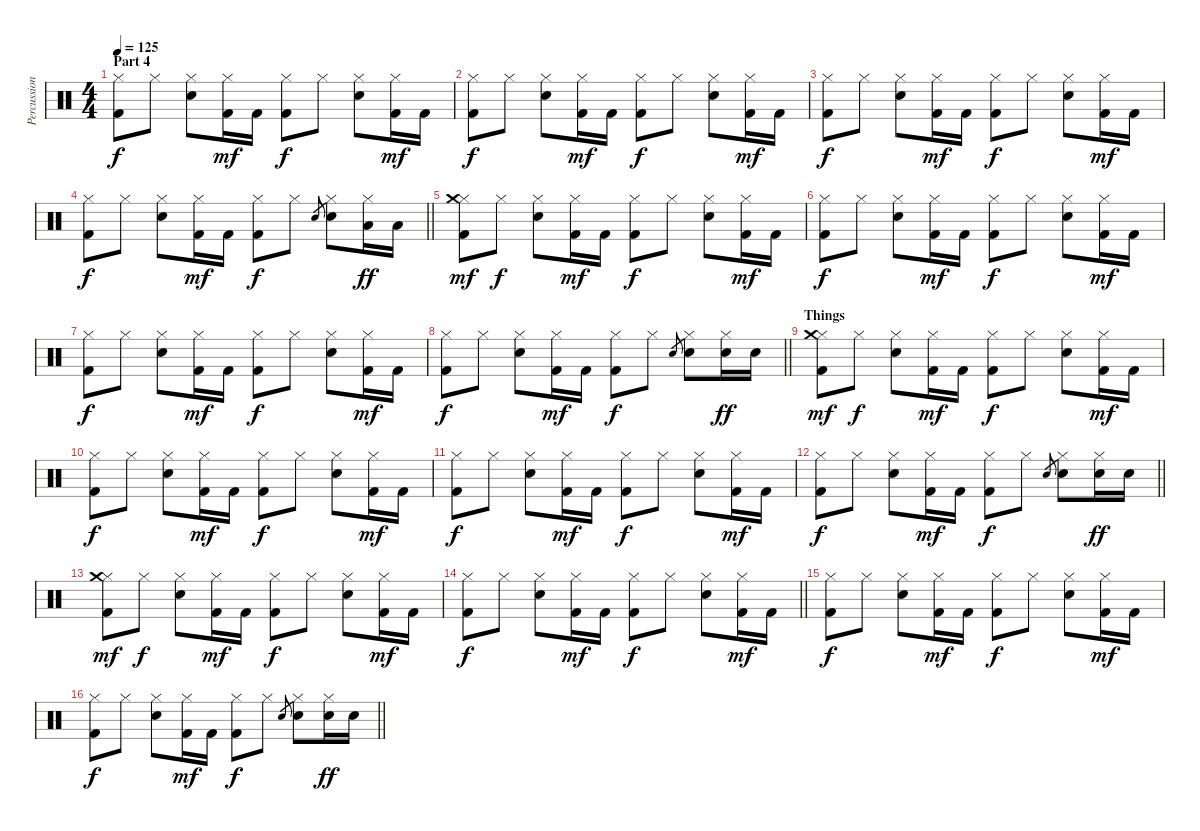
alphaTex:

\track ("Percussion" "Percussion") {instrument percussion}
\staff {score}
\articulation defaults
\ts (4 4)
\section ("" "Part 4")
\tempo 125
\clef neutral
\ks c
("Hi-Hat (closed)" "Kick (hit) 2").8{dy f} "Hi-Hat (closed)".8 ("Hi-Hat (closed)" "Electric Snare (hit)").8 ("Hi-Hat (closed)" "Kick (hit) 2").16{dy mf} "Kick (hit) 2".16 ("Hi-Hat (closed)" "Kick (hit) 2").8{dy f} "Hi-Hat (closed)".8 ("Hi-Hat (closed)" "Electric Snare (hit)").8 ("Hi-Hat (closed)" "Kick (hit) 2").16{dy mf} "Kick (hit) 2".16 |
("Hi-Hat (closed)" "Kick (hit) 2").8{dy f} "Hi-Hat (closed)".8 ("Hi-Hat (closed)" "Electric Snare (hit)").8 ("Hi-Hat (closed)" "Kick (hit) 2").16{dy mf} "Kick (hit) 2".16 ("Hi-Hat (closed)" "Kick (hit) 2").8{dy f} "Hi-Hat (closed)".8 ("Hi-Hat (closed)" "Electric Snare (hit)").8 ("Hi-Hat (closed)" "Kick (hit) 2").16{dy mf} "Kick (hit) 2".16 |
("Hi-Hat (closed)" "Kick (hit) 2").8{dy f} "Hi-Hat (closed)".8 ("Hi-Hat (closed)" "Electric Snare (hit)").8 ("Hi-Hat (closed)" "Kick (hit) 2").16{dy mf} "Kick (hit) 2".16 ("Hi-Hat (closed)" "Kick (hit) 2").8{dy f} "Hi-Hat (closed)".8 ("Hi-Hat (closed)" "Electric Snare (hit)").8 ("Hi-Hat (closed)" "Kick (hit) 2").16{dy mf} "Kick (hit) 2".16 |
\barLineRight lightlight
("Hi-Hat (closed)" "Kick (hit) 2").8{dy f} "Hi-Hat (closed)".8 ("Hi-Hat (closed)" "Electric Snare (hit)").8 ("Hi-Hat (closed)" "Kick (hit) 2").16{dy mf} "Kick (hit) 2".16 ("Hi-Hat (closed)" "Kick (hit) 2").8{dy f} "Hi-Hat (closed)".8 "Electric Snare (hit)".8{gr} ("Hi-Hat (closed)" "Electric Snare (hit)").8 ("Hi-Hat (closed)" "Low Tom (hit)").16{dy ff} "Low Tom (hit)".16 |
("Hi-Hat (closed)" "Kick (hit) 2" "Crash medium (hit)").8{dy mf} "Hi-Hat (closed)".8{dy f} ("Hi-Hat (closed)" "Electric Snare (hit)").8 ("Hi-Hat (closed)" "Kick (hit) 2").16{dy mf} "Kick (hit) 2".16 ("Hi-Hat (closed)" "Kick (hit) 2").8{dy f} "Hi-Hat (closed)".8 ("Hi-Hat (closed)" "Electric Snare (hit)").8 ("Hi-Hat (closed)" "Kick (hit) 2").16{dy mf} "Kick (hit) 2".16 |
("Hi-Hat (closed)" "Kick (hit) 2").8{dy f} "Hi-Hat (closed)".8 ("Hi-Hat (closed)" "Electric Snare (hit)").8 ("Hi-Hat (closed)" "Kick (hit) 2").16{dy mf} "Kick (hit) 2".16 ("Hi-Hat (closed)" "Kick (hit) 2").8{dy f} "Hi-Hat (closed)".8 ("Hi-Hat (closed)" "Electric Snare (hit)").8 ("Hi-Hat (closed)" "Kick (hit) 2").16{dy mf} "Kick (hit) 2".16 |
("Hi-Hat (closed)" "Kick (hit) 2").8{dy f} "Hi-Hat (closed)".8 ("Hi-Hat (closed)" "Electric Snare (hit)").8 ("Hi-Hat (closed)" "Kick (hit) 2").16{dy mf} "Kick (hit) 2".16 ("Hi-Hat (closed)" "Kick (hit) 2").8{dy f} "Hi-Hat (closed)".8 ("Hi-Hat (closed)" "Electric Snare (hit)").8 ("Hi-Hat (closed)" "Kick (hit) 2").16{dy mf} "Kick (hit) 2".16 |
\barLineRight lightlight
("Hi-Hat (closed)" "Kick (hit) 2").8{dy f} "Hi-Hat (closed)".8 ("Hi-Hat (closed)" "Electric Snare (hit)").8 ("Hi-Hat (closed)" "Kick (hit) 2").16{dy mf} "Kick (hit) 2".16 ("Hi-Hat (closed)" "Kick (hit) 2").8{dy f} "Hi-Hat (closed)".8 "Electric Snare (hit)".8{gr} ("Hi-Hat (closed)" "Electric Snare (hit)").8 ("Hi-Hat (closed)" "Snare (hit) 2").16{dy ff} "Snare (hit) 2".16 |
\section ("" "Things")
("Hi-Hat (closed)" "Kick (hit) 2" "Crash medium (hit)").8{dy mf} "Hi-Hat (closed)".8{dy f} ("Hi-Hat (closed)" "Electric Snare (hit)").8 ("Hi-Hat (closed)" "Kick (hit) 2").16{dy mf} "Kick (hit) 2".16 ("Hi-Hat (closed)" "Kick (hit) 2").8{dy f} "Hi-Hat (closed)".8 ("Hi-Hat (closed)" "Electric Snare (hit)").8 ("Hi-Hat (closed)" "Kick (hit) 2").16{dy mf} "Kick (hit) 2".16 |
("Hi-Hat (closed)" "Kick (hit) 2").8{dy f} "Hi-Hat (closed)".8 ("Hi-Hat (closed)" "Electric Snare (hit)").8 ("Hi-Hat (closed)" "Kick (hit) 2").16{dy mf} "Kick (hit) 2".16 ("Hi-Hat (closed)" "Kick (hit) 2").8{dy f} "Hi-Hat (closed)".8 ("Hi-Hat (closed)" "Electric Snare (hit)").8 ("Hi-Hat (closed)" "Kick (hit) 2").16{dy mf} "Kick (hit) 2".16 |
("Hi-Hat (closed)" "Kick (hit) 2").8{dy f} "Hi-Hat (closed)".8 ("Hi-Hat (closed)" "Electric Snare (hit)").8 ("Hi-Hat (closed)" "Kick (hit) 2").16{dy mf} "Kick (hit) 2".16 ("Hi-Hat (closed)" "Kick (hit) 2").8{dy f} "Hi-Hat (closed)".8 ("Hi-Hat (closed)" "Electric Snare (hit)").8 ("Hi-Hat (closed)" "Kick (hit) 2").16{dy mf} "Kick (hit) 2".16 |
\barLineRight lightlight
("Hi-Hat (closed)" "Kick (hit) 2").8{dy f} "Hi-Hat (closed)".8 ("Hi-Hat (closed)" "Electric Snare (hit)").8 ("Hi-Hat (closed)" "Kick (hit) 2").16{dy mf} "Kick (hit) 2".16 ("Hi-Hat (closed)" "Kick (hit) 2").8{dy f} "Hi-Hat (closed)".8 "Electric Snare (hit)".8{gr} ("Hi-Hat (closed)" "Electric Snare (hit)").8 ("Hi-Hat (closed)" "Snare (hit) 2").16{dy ff} "Snare (hit) 2".16 |
("Hi-Hat (closed)" "Kick (hit) 2" "Crash medium (hit)").8{dy mf} "Hi-Hat (closed)".8{dy f} ("Hi-Hat (closed)" "Electric Snare (hit)").8 ("Hi-Hat (closed)" "Kick (hit) 2").16{dy mf} "Kick (hit) 2".16 ("Hi-Hat (closed)" "Kick (hit) 2").8{dy f} "Hi-Hat (closed)".8 ("Hi-Hat (closed)" "Electric Snare (hit)").8 ("Hi-Hat (closed)" "Kick (hit) 2").16{dy mf} "Kick (hit) 2".16 |
\barLineRight lightlight
("Hi-Hat (closed)" "Kick (hit) 2").8{dy f} "Hi-Hat (closed)".8 ("Hi-Hat (closed)" "Electric Snare (hit)").8 ("Hi-Hat (closed)" "Kick (hit) 2").16{dy mf} "Kick (hit) 2".16 ("Hi-Hat (closed)" "Kick (hit) 2").8{dy f} "Hi-Hat (closed)".8 ("Hi-Hat (closed)" "Electric Snare (hit)").8 ("Hi-Hat (closed)" "Kick (hit) 2").16{dy mf} "Kick (hit) 2".16 |
("Hi-Hat (closed)" "Kick (hit) 2").8{dy f} "Hi-Hat (closed)".8 ("Hi-Hat (closed)" "Electric Snare (hit)").8 ("Hi-Hat (closed)" "Kick (hit) 2").16{dy mf} "Kick (hit) 2".16 ("Hi-Hat (closed)" "Kick (hit) 2").8{dy f} "Hi-Hat (closed)".8 ("Hi-Hat (closed)" "Electric Snare (hit)").8 ("Hi-Hat (closed)" "Kick (hit) 2").16{dy mf} "Kick (hit) 2".16 |
\barLineRight lightlight
("Hi-Hat (closed)" "Kick (hit) 2").8{dy f} "Hi-Hat (closed)".8 ("Hi-Hat (closed)" "Electric Snare (hit)").8 ("Hi-Hat (closed)" "Kick (hit) 2").16{dy mf} "Kick (hit) 2".16 ("Hi-Hat (closed)" "Kick (hit) 2").8{dy f} "Hi-Hat (closed)".8 "Electric Snare (hit)".8{gr} ("Hi-Hat (closed)" "Electric Snare (hit)").8 ("Hi-Hat (closed)" "Snare (hit) 2").16{dy ff} "Snare (hit) 2".16
